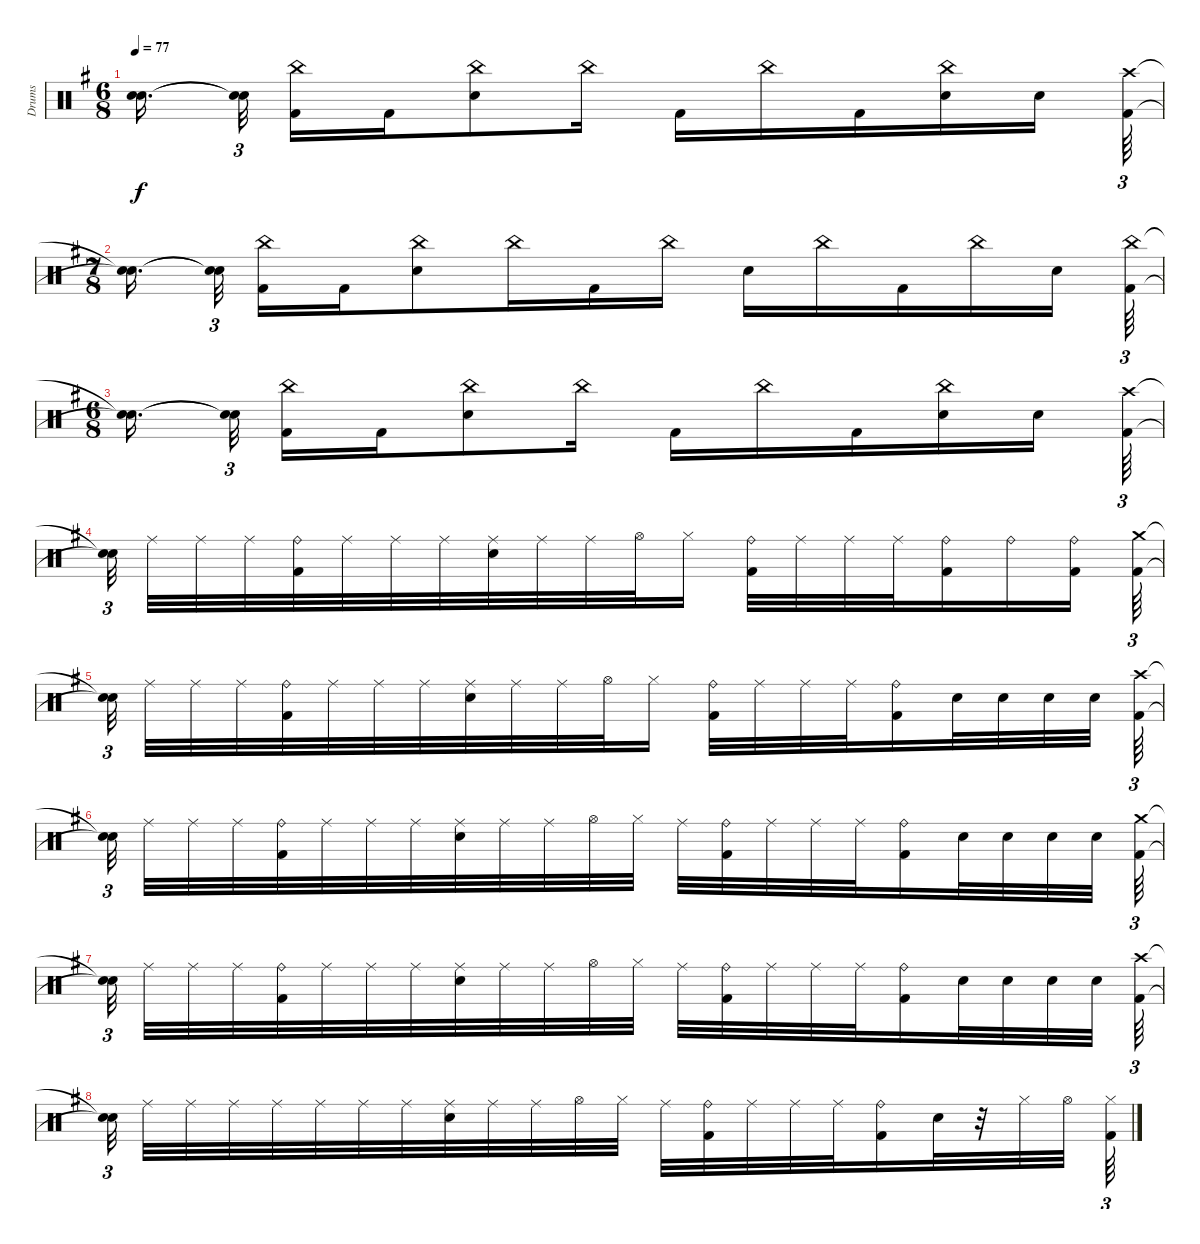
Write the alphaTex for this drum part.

\track ("Drums" "Drums") {instrument percussion}
\staff {score}
\articulation defaults
\ts (6 8)
\tempo 77
\clef neutral
\ks g
("Snare (hit)"{t} "Snare (hit)"{t}).16{d dy f beam splitsecondary} ("Snare (hit)"{t} "Snare (hit)"{t}).32{tu (3 2) beam splitsecondary} ("China (hit)" "Kick (hit) 2").16 "Kick (hit) 2".16 ("Electric Snare (hit)" "China (hit)").8 "China (hit)".16 "Kick (hit) 2".16 "China (hit)".16 "Kick (hit) 2".16 ("China (hit)" "Electric Snare (hit)").16 "Electric Snare (hit)".16{beam splitsecondary} ("Crash high (hit)" "Kick (hit) 2").64{tu (3 2)} |
\ts (7 8)
("Snare (hit)"{t} "Snare (hit)"{t}).16{d beam splitsecondary} ("Snare (hit)"{t} "Snare (hit)"{t}).32{tu (3 2)} ("China (hit)" "Kick (hit) 2").16 "Kick (hit) 2".16 ("Electric Snare (hit)" "China (hit)").8 "China (hit)".16 "Kick (hit) 2".16 "China (hit)".16 "Electric Snare (hit)".16 "China (hit)".16 "Kick (hit) 2".16 "China (hit)".16 "Electric Snare (hit)".16 ("Kick (hit) 2" "China (hit)").64{tu (3 2)} |
\ts (6 8)
("Snare (hit)"{t} "Snare (hit)"{t}).16{d beam splitsecondary} ("Snare (hit)"{t} "Snare (hit)"{t}).32{tu (3 2) beam splitsecondary} ("China (hit)" "Kick (hit) 2").16 "Kick (hit) 2".16 ("Electric Snare (hit)" "China (hit)").8 "China (hit)".16 "Kick (hit) 2".16 "China (hit)".16 "Kick (hit) 2".16 ("China (hit)" "Electric Snare (hit)").16 "Electric Snare (hit)".16{beam splitsecondary} ("Kick (hit) 2" "Crash high (hit)").64{tu (3 2)} |
("Snare (hit)"{t} "Snare (hit)"{t}).32{tu (3 2) beam splitsecondary} "Ride (middle)".32 "Ride (middle)".32 "Ride (middle)".32 ("Kick (hit) 2" "Ride (bell)").32 "Ride (middle)".32 "Ride (middle)".32 "Ride (middle)".32 ("Electric Snare (hit)" "Ride (middle)").32 "Ride (middle)".32 "Ride (middle)".32 "Hi-Hat (open)".32 "Hi-Hat (closed)".16 ("Kick (hit) 2" "Ride (bell)").32 "Ride (middle)".32 "Ride (middle)".32 "Ride (middle)".32 ("Kick (hit) 2" "Ride (bell)").16 "Ride (bell)".16 ("Ride (bell)" "Kick (hit) 2").16{beam splitsecondary} ("Kick (hit) 2" "Crash medium (hit)").64{tu (3 2)} |
("Snare (hit)"{t} "Snare (hit)"{t}).32{tu (3 2) beam splitsecondary} "Ride (middle)".32 "Ride (middle)".32 "Ride (middle)".32 ("Kick (hit) 2" "Ride (bell)").32 "Ride (middle)".32 "Ride (middle)".32 "Ride (middle)".32 ("Electric Snare (hit)" "Ride (middle)").32 "Ride (middle)".32 "Ride (middle)".32 "Hi-Hat (open)".32 "Hi-Hat (closed)".16 ("Kick (hit) 2" "Ride (bell)").32 "Ride (middle)".32 "Ride (middle)".32 "Ride (middle)".32 ("Ride (bell)" "Kick (hit) 2").16 "Electric Snare (hit)".32 "Electric Snare (hit)".32 "Electric Snare (hit)".32 "Electric Snare (hit)".32{beam splitsecondary} ("Kick (hit) 2" "Crash high (hit)").64{tu (3 2)} |
("Snare (hit)"{t} "Snare (hit)"{t}).32{tu (3 2) beam splitsecondary} "Ride (middle)".32 "Ride (middle)".32 "Ride (middle)".32 ("Kick (hit) 2" "Ride (bell)").32 "Ride (middle)".32 "Ride (middle)".32 "Ride (middle)".32 ("Electric Snare (hit)" "Ride (middle)").32 "Ride (middle)".32 "Ride (middle)".32 "Hi-Hat (open)".32 "Hi-Hat (closed)".32 "Ride (middle)".32 ("Kick (hit) 2" "Ride (bell)").32 "Ride (middle)".32 "Ride (middle)".32 "Ride (middle)".32 ("Ride (bell)" "Kick (hit) 2").16 "Electric Snare (hit)".32 "Electric Snare (hit)".32 "Electric Snare (hit)".32 "Electric Snare (hit)".32{beam splitsecondary} ("Crash medium (hit)" "Kick (hit) 2").64{tu (3 2)} |
("Snare (hit)"{t} "Snare (hit)"{t}).32{tu (3 2) beam splitsecondary} "Ride (middle)".32 "Ride (middle)".32 "Ride (middle)".32 ("Kick (hit) 2" "Ride (bell)").32 "Ride (middle)".32 "Ride (middle)".32 "Ride (middle)".32 ("Electric Snare (hit)" "Ride (middle)").32 "Ride (middle)".32 "Ride (middle)".32 "Hi-Hat (open)".32 "Hi-Hat (closed)".32 "Ride (middle)".32 ("Kick (hit) 2" "Ride (bell)").32 "Ride (middle)".32 "Ride (middle)".32 "Ride (middle)".32 ("Ride (bell)" "Kick (hit) 2").16 "Electric Snare (hit)".32 "Electric Snare (hit)".32 "Electric Snare (hit)".32 "Electric Snare (hit)".32{beam splitsecondary} ("Kick (hit) 2" "Crash high (hit)").64{tu (3 2)} |
("Snare (hit)"{t} "Snare (hit)"{t}).32{tu (3 2) beam splitsecondary} "Ride (middle)".32 "Ride (middle)".32 "Ride (middle)".32 "Ride (middle)".32 "Ride (middle)".32 "Ride (middle)".32 "Ride (middle)".32 ("Electric Snare (hit)" "Ride (middle)").32 "Ride (middle)".32 "Ride (middle)".32 "Hi-Hat (open)".32 "Hi-Hat (closed)".32 "Ride (middle)".32 ("Kick (hit) 2" "Ride (bell)").32 "Ride (middle)".32 "Ride (middle)".32 "Ride (middle)".32 ("Ride (bell)" "Kick (hit) 2").16 "Electric Snare (hit)".32 r.32 "Hi-Hat (closed)".32 "Hi-Hat (open)".32{beam splitsecondary} ("Kick (hit) 2" "Hi-Hat (closed)").64{tu (3 2)}
